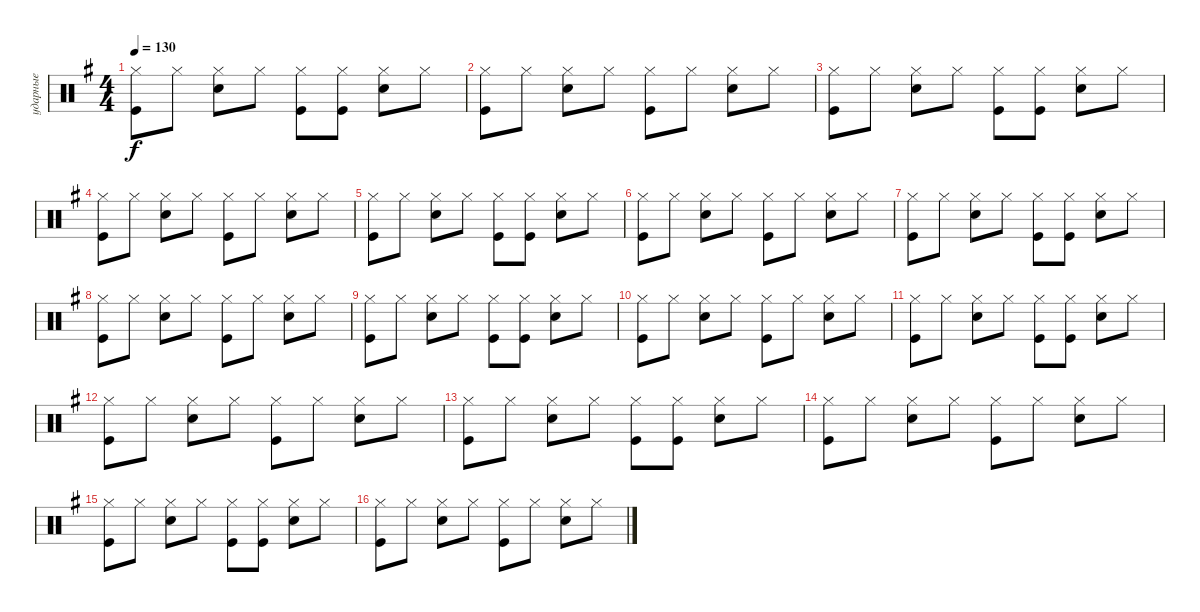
\track ("ударные" "ударные") {instrument percussion}
\staff {score}
\articulation defaults
\ts (4 4)
\tempo 130
\clef neutral
\ks eminor
("Kick (hit)" "Hi-Hat (closed)").8{dy f} "Hi-Hat (closed)".8 ("Snare (hit) 2" "Hi-Hat (closed)").8 "Hi-Hat (closed)".8 ("Kick (hit)" "Hi-Hat (closed)").8 ("Hi-Hat (closed)" "Kick (hit)").8 ("Snare (hit) 2" "Hi-Hat (closed)").8 "Hi-Hat (closed)".8 |
("Kick (hit)" "Hi-Hat (closed)").8 "Hi-Hat (closed)".8 ("Snare (hit) 2" "Hi-Hat (closed)").8 "Hi-Hat (closed)".8 ("Kick (hit)" "Hi-Hat (closed)").8 "Hi-Hat (closed)".8 ("Snare (hit) 2" "Hi-Hat (closed)").8 "Hi-Hat (closed)".8 |
("Kick (hit)" "Hi-Hat (closed)").8 "Hi-Hat (closed)".8 ("Snare (hit) 2" "Hi-Hat (closed)").8 "Hi-Hat (closed)".8 ("Kick (hit)" "Hi-Hat (closed)").8 ("Hi-Hat (closed)" "Kick (hit)").8 ("Snare (hit) 2" "Hi-Hat (closed)").8 "Hi-Hat (closed)".8 |
("Kick (hit)" "Hi-Hat (closed)").8 "Hi-Hat (closed)".8 ("Snare (hit) 2" "Hi-Hat (closed)").8 "Hi-Hat (closed)".8 ("Kick (hit)" "Hi-Hat (closed)").8 "Hi-Hat (closed)".8 ("Snare (hit) 2" "Hi-Hat (closed)").8 "Hi-Hat (closed)".8 |
("Kick (hit)" "Hi-Hat (closed)").8 "Hi-Hat (closed)".8 ("Snare (hit) 2" "Hi-Hat (closed)").8 "Hi-Hat (closed)".8 ("Kick (hit)" "Hi-Hat (closed)").8 ("Hi-Hat (closed)" "Kick (hit)").8 ("Snare (hit) 2" "Hi-Hat (closed)").8 "Hi-Hat (closed)".8 |
("Kick (hit)" "Hi-Hat (closed)").8 "Hi-Hat (closed)".8 ("Snare (hit) 2" "Hi-Hat (closed)").8 "Hi-Hat (closed)".8 ("Kick (hit)" "Hi-Hat (closed)").8 "Hi-Hat (closed)".8 ("Snare (hit) 2" "Hi-Hat (closed)").8 "Hi-Hat (closed)".8 |
("Kick (hit)" "Hi-Hat (closed)").8 "Hi-Hat (closed)".8 ("Snare (hit) 2" "Hi-Hat (closed)").8 "Hi-Hat (closed)".8 ("Kick (hit)" "Hi-Hat (closed)").8 ("Hi-Hat (closed)" "Kick (hit)").8 ("Snare (hit) 2" "Hi-Hat (closed)").8 "Hi-Hat (closed)".8 |
("Kick (hit)" "Hi-Hat (closed)").8 "Hi-Hat (closed)".8 ("Snare (hit) 2" "Hi-Hat (closed)").8 "Hi-Hat (closed)".8 ("Kick (hit)" "Hi-Hat (closed)").8 "Hi-Hat (closed)".8 ("Snare (hit) 2" "Hi-Hat (closed)").8 "Hi-Hat (closed)".8 |
("Kick (hit)" "Hi-Hat (closed)").8 "Hi-Hat (closed)".8 ("Snare (hit) 2" "Hi-Hat (closed)").8 "Hi-Hat (closed)".8 ("Kick (hit)" "Hi-Hat (closed)").8 ("Hi-Hat (closed)" "Kick (hit)").8 ("Snare (hit) 2" "Hi-Hat (closed)").8 "Hi-Hat (closed)".8 |
("Kick (hit)" "Hi-Hat (closed)").8 "Hi-Hat (closed)".8 ("Snare (hit) 2" "Hi-Hat (closed)").8 "Hi-Hat (closed)".8 ("Kick (hit)" "Hi-Hat (closed)").8 "Hi-Hat (closed)".8 ("Snare (hit) 2" "Hi-Hat (closed)").8 "Hi-Hat (closed)".8 |
("Kick (hit)" "Hi-Hat (closed)").8 "Hi-Hat (closed)".8 ("Snare (hit) 2" "Hi-Hat (closed)").8 "Hi-Hat (closed)".8 ("Kick (hit)" "Hi-Hat (closed)").8 ("Hi-Hat (closed)" "Kick (hit)").8 ("Snare (hit) 2" "Hi-Hat (closed)").8 "Hi-Hat (closed)".8 |
("Kick (hit)" "Hi-Hat (closed)").8 "Hi-Hat (closed)".8 ("Snare (hit) 2" "Hi-Hat (closed)").8 "Hi-Hat (closed)".8 ("Kick (hit)" "Hi-Hat (closed)").8 "Hi-Hat (closed)".8 ("Snare (hit) 2" "Hi-Hat (closed)").8 "Hi-Hat (closed)".8 |
("Kick (hit)" "Hi-Hat (closed)").8 "Hi-Hat (closed)".8 ("Snare (hit) 2" "Hi-Hat (closed)").8 "Hi-Hat (closed)".8 ("Kick (hit)" "Hi-Hat (closed)").8 ("Hi-Hat (closed)" "Kick (hit)").8 ("Snare (hit) 2" "Hi-Hat (closed)").8 "Hi-Hat (closed)".8 |
("Kick (hit)" "Hi-Hat (closed)").8 "Hi-Hat (closed)".8 ("Snare (hit) 2" "Hi-Hat (closed)").8 "Hi-Hat (closed)".8 ("Kick (hit)" "Hi-Hat (closed)").8 "Hi-Hat (closed)".8 ("Snare (hit) 2" "Hi-Hat (closed)").8 "Hi-Hat (closed)".8 |
("Kick (hit)" "Hi-Hat (closed)").8 "Hi-Hat (closed)".8 ("Snare (hit) 2" "Hi-Hat (closed)").8 "Hi-Hat (closed)".8 ("Kick (hit)" "Hi-Hat (closed)").8 ("Hi-Hat (closed)" "Kick (hit)").8 ("Snare (hit) 2" "Hi-Hat (closed)").8 "Hi-Hat (closed)".8 |
("Kick (hit)" "Hi-Hat (closed)").8 "Hi-Hat (closed)".8 ("Snare (hit) 2" "Hi-Hat (closed)").8 "Hi-Hat (closed)".8 ("Kick (hit)" "Hi-Hat (closed)").8 "Hi-Hat (closed)".8 ("Snare (hit) 2" "Hi-Hat (closed)").8 "Hi-Hat (closed)".8
